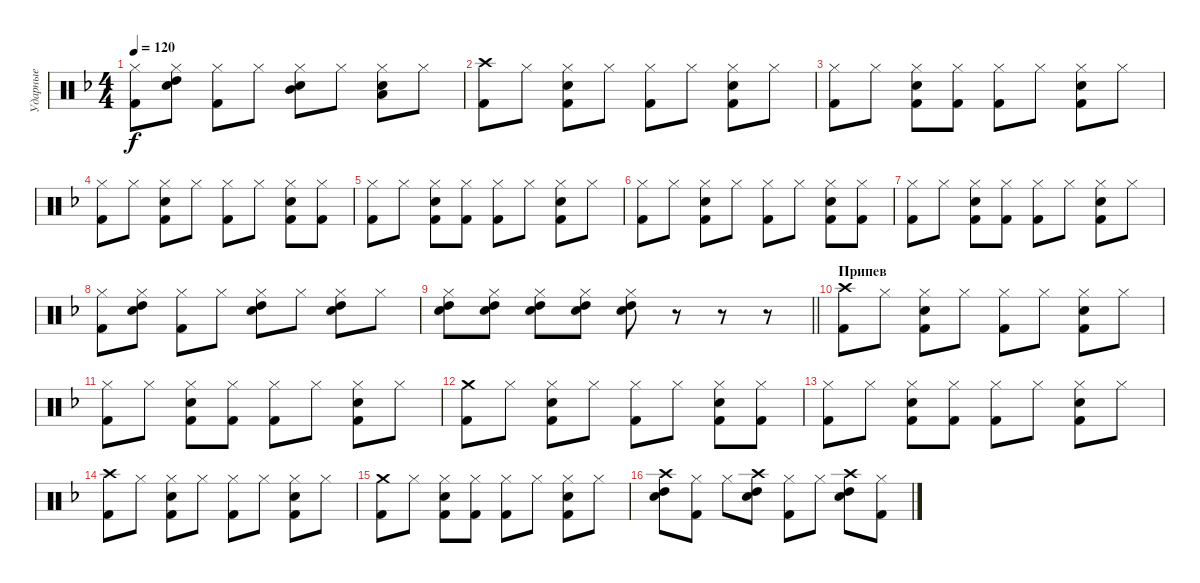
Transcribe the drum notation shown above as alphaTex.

\track ("Ударные" "Ударные") {instrument percussion}
\staff {score}
\articulation defaults
\ts (4 4)
\tempo 120
\clef neutral
\ks f
("Kick (hit) 2" "Hi-Hat (closed)").8{dy f} ("High Tom (hit)" "Hi-Hat (closed)" "Electric Snare (hit)").8 ("Kick (hit) 2" "Hi-Hat (closed)").8 "Hi-Hat (closed)".8 ("Mid Tom (hit)" "Electric Snare (hit)" "Hi-Hat (closed)").8 "Hi-Hat (closed)".8 ("Low Tom (hit)" "Electric Snare (hit)" "Hi-Hat (closed)").8 "Hi-Hat (closed)".8 |
("Kick (hit) 2" "Crash high (hit)").8 "Hi-Hat (closed)".8 ("Kick (hit) 2" "Electric Snare (hit)" "Hi-Hat (closed)").8 "Hi-Hat (closed)".8 ("Kick (hit) 2" "Hi-Hat (closed)").8 "Hi-Hat (closed)".8 ("Kick (hit) 2" "Electric Snare (hit)" "Hi-Hat (closed)").8 "Hi-Hat (closed)".8 |
("Kick (hit) 2" "Hi-Hat (closed)").8 "Hi-Hat (closed)".8 ("Kick (hit) 2" "Electric Snare (hit)" "Hi-Hat (closed)").8 ("Kick (hit) 2" "Hi-Hat (closed)").8 ("Kick (hit) 2" "Hi-Hat (closed)").8 "Hi-Hat (closed)".8 ("Kick (hit) 2" "Electric Snare (hit)" "Hi-Hat (closed)").8 "Hi-Hat (closed)".8 |
("Kick (hit) 2" "Hi-Hat (closed)").8 "Hi-Hat (closed)".8 ("Kick (hit) 2" "Electric Snare (hit)" "Hi-Hat (closed)").8 "Hi-Hat (closed)".8 ("Kick (hit) 2" "Hi-Hat (closed)").8 "Hi-Hat (closed)".8 ("Kick (hit) 2" "Electric Snare (hit)" "Hi-Hat (closed)").8 ("Kick (hit) 2" "Hi-Hat (closed)").8 |
("Kick (hit) 2" "Hi-Hat (closed)").8 "Hi-Hat (closed)".8 ("Kick (hit) 2" "Electric Snare (hit)" "Hi-Hat (closed)").8 ("Kick (hit) 2" "Hi-Hat (closed)").8 ("Kick (hit) 2" "Hi-Hat (closed)").8 "Hi-Hat (closed)".8 ("Kick (hit) 2" "Electric Snare (hit)" "Hi-Hat (closed)").8 "Hi-Hat (closed)".8 |
("Kick (hit) 2" "Hi-Hat (closed)").8 "Hi-Hat (closed)".8 ("Kick (hit) 2" "Electric Snare (hit)" "Hi-Hat (closed)").8 "Hi-Hat (closed)".8 ("Kick (hit) 2" "Hi-Hat (closed)").8 "Hi-Hat (closed)".8 ("Kick (hit) 2" "Electric Snare (hit)" "Hi-Hat (closed)").8 ("Kick (hit) 2" "Hi-Hat (closed)").8 |
("Kick (hit) 2" "Hi-Hat (closed)").8 "Hi-Hat (closed)".8 ("Kick (hit) 2" "Electric Snare (hit)" "Hi-Hat (closed)").8 ("Kick (hit) 2" "Hi-Hat (closed)").8 ("Kick (hit) 2" "Hi-Hat (closed)").8 "Hi-Hat (closed)".8 ("Kick (hit) 2" "Electric Snare (hit)" "Hi-Hat (closed)").8 "Hi-Hat (closed)".8 |
("Kick (hit) 2" "Hi-Hat (closed)").8 ("High Tom (hit)" "Hi-Hat (closed)" "Electric Snare (hit)").8 ("Kick (hit) 2" "Hi-Hat (closed)").8 "Hi-Hat (closed)".8 ("High Tom (hit)" "Hi-Hat (closed)" "Electric Snare (hit)").8 "Hi-Hat (closed)".8 ("High Tom (hit)" "Hi-Hat (closed)" "Electric Snare (hit)").8 "Hi-Hat (closed)".8 |
\barLineRight lightlight
("High Tom (hit)" "Hi-Hat (closed)" "Electric Snare (hit)").8 ("High Tom (hit)" "Hi-Hat (closed)" "Electric Snare (hit)").8 ("High Tom (hit)" "Hi-Hat (closed)" "Electric Snare (hit)").8 ("High Tom (hit)" "Hi-Hat (closed)" "Electric Snare (hit)").8 ("High Tom (hit)" "Hi-Hat (closed)" "Electric Snare (hit)").8 r.8 r.8 r.8 |
\section ("" "Припев")
("Kick (hit) 2" "Crash high (hit)").8 "Hi-Hat (closed)".8 ("Kick (hit) 2" "Electric Snare (hit)" "Hi-Hat (closed)").8 "Hi-Hat (closed)".8 ("Kick (hit) 2" "Hi-Hat (closed)").8 "Hi-Hat (closed)".8 ("Kick (hit) 2" "Electric Snare (hit)" "Hi-Hat (closed)").8 "Hi-Hat (closed)".8 |
("Kick (hit) 2" "Hi-Hat (closed)").8 "Hi-Hat (closed)".8 ("Kick (hit) 2" "Electric Snare (hit)" "Hi-Hat (closed)").8 ("Kick (hit) 2" "Hi-Hat (closed)").8 ("Kick (hit) 2" "Hi-Hat (closed)").8 "Hi-Hat (closed)".8 ("Kick (hit) 2" "Electric Snare (hit)" "Hi-Hat (closed)").8 "Hi-Hat (closed)".8 |
("Kick (hit) 2" "Crash medium (hit)").8 "Hi-Hat (closed)".8 ("Kick (hit) 2" "Electric Snare (hit)" "Hi-Hat (closed)").8 "Hi-Hat (closed)".8 ("Kick (hit) 2" "Hi-Hat (closed)").8 "Hi-Hat (closed)".8 ("Kick (hit) 2" "Electric Snare (hit)" "Hi-Hat (closed)").8 ("Kick (hit) 2" "Hi-Hat (closed)").8 |
("Kick (hit) 2" "Hi-Hat (closed)").8 "Hi-Hat (closed)".8 ("Kick (hit) 2" "Electric Snare (hit)" "Hi-Hat (closed)").8 ("Kick (hit) 2" "Hi-Hat (closed)").8 ("Kick (hit) 2" "Hi-Hat (closed)").8 "Hi-Hat (closed)".8 ("Kick (hit) 2" "Electric Snare (hit)" "Hi-Hat (closed)").8 "Hi-Hat (closed)".8 |
("Kick (hit) 2" "Crash high (hit)").8 "Hi-Hat (closed)".8 ("Kick (hit) 2" "Electric Snare (hit)" "Hi-Hat (closed)").8 "Hi-Hat (closed)".8 ("Kick (hit) 2" "Hi-Hat (closed)").8 "Hi-Hat (closed)".8 ("Kick (hit) 2" "Electric Snare (hit)" "Hi-Hat (closed)").8 "Hi-Hat (closed)".8 |
("Kick (hit) 2" "Crash medium (hit)").8 "Hi-Hat (closed)".8 ("Kick (hit) 2" "Electric Snare (hit)" "Hi-Hat (closed)").8 ("Kick (hit) 2" "Hi-Hat (closed)").8 ("Kick (hit) 2" "Hi-Hat (closed)").8 "Hi-Hat (closed)".8 ("Kick (hit) 2" "Electric Snare (hit)" "Hi-Hat (closed)").8 "Hi-Hat (closed)".8 |
("Electric Snare (hit)" "High Tom (hit)" "Crash high (hit)").8 ("Kick (hit) 2" "Hi-Hat (closed)").8 "Hi-Hat (closed)".8 ("Electric Snare (hit)" "High Tom (hit)" "Crash high (hit)").8 ("Kick (hit) 2" "Hi-Hat (closed)").8 "Hi-Hat (closed)".8 ("Electric Snare (hit)" "High Tom (hit)" "Crash high (hit)").8 ("Kick (hit) 2" "Hi-Hat (closed)").8
